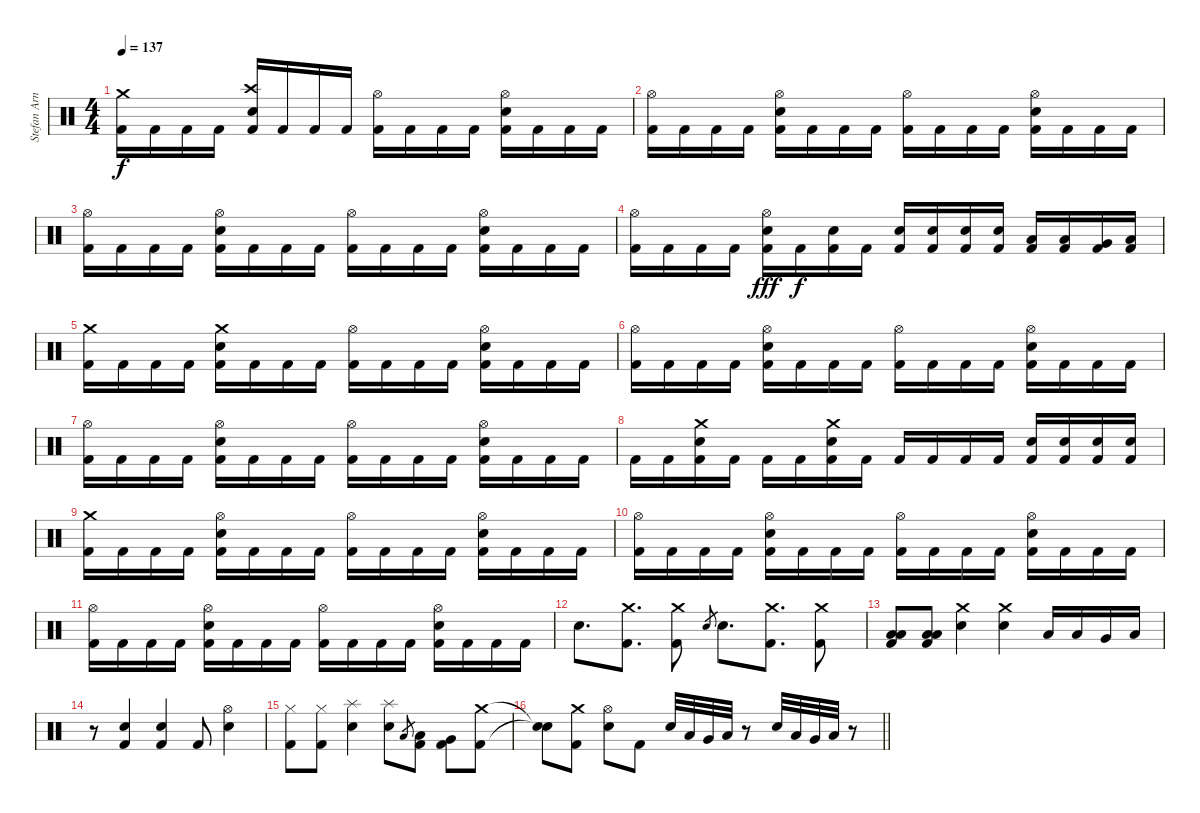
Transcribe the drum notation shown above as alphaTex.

\track ("Stefan Arnold" "Stefan Arn") {instrument percussion}
\staff {score}
\articulation defaults
\ts (4 4)
\tempo 137
\clef neutral
\ks c
("Crash medium (hit)" "Kick (hit) 2").16{dy f} "Kick (hit) 2".16 "Kick (hit) 2".16 "Kick (hit) 2".16 ("Crash high (hit)" "Electric Snare (hit)" "Kick (hit) 2").16 "Kick (hit) 2".16 "Kick (hit) 2".16 "Kick (hit) 2".16 ("Hi-Hat (open)" "Kick (hit) 2").16 "Kick (hit) 2".16 "Kick (hit) 2".16 "Kick (hit) 2".16 ("Hi-Hat (open)" "Electric Snare (hit)" "Kick (hit) 2").16 "Kick (hit) 2".16 "Kick (hit) 2".16 "Kick (hit) 2".16 |
("Hi-Hat (open)" "Kick (hit) 2").16 "Kick (hit) 2".16 "Kick (hit) 2".16 "Kick (hit) 2".16 ("Hi-Hat (open)" "Electric Snare (hit)" "Kick (hit) 2").16 "Kick (hit) 2".16 "Kick (hit) 2".16 "Kick (hit) 2".16 ("Hi-Hat (open)" "Kick (hit) 2").16 "Kick (hit) 2".16 "Kick (hit) 2".16 "Kick (hit) 2".16 ("Hi-Hat (open)" "Electric Snare (hit)" "Kick (hit) 2").16 "Kick (hit) 2".16 "Kick (hit) 2".16 "Kick (hit) 2".16 |
("Hi-Hat (open)" "Kick (hit) 2").16 "Kick (hit) 2".16 "Kick (hit) 2".16 "Kick (hit) 2".16 ("Hi-Hat (open)" "Electric Snare (hit)" "Kick (hit) 2").16 "Kick (hit) 2".16 "Kick (hit) 2".16 "Kick (hit) 2".16 ("Hi-Hat (open)" "Kick (hit) 2").16 "Kick (hit) 2".16 "Kick (hit) 2".16 "Kick (hit) 2".16 ("Hi-Hat (open)" "Electric Snare (hit)" "Kick (hit) 2").16 "Kick (hit) 2".16 "Kick (hit) 2".16 "Kick (hit) 2".16 |
("Hi-Hat (open)" "Kick (hit) 2").16 "Kick (hit) 2".16 "Kick (hit) 2".16 "Kick (hit) 2".16 ("Hi-Hat (open)" "Electric Snare (hit)" "Kick (hit) 2").16{dy fff} "Kick (hit) 2".16{dy f} ("Electric Snare (hit)" "Kick (hit) 2").16 "Kick (hit) 2".16 ("Electric Snare (hit)" "Kick (hit) 2").16 ("Electric Snare (hit)" "Kick (hit) 2").16 ("Electric Snare (hit)" "Kick (hit) 2").16 ("Electric Snare (hit)" "Kick (hit) 2").16 ("Low Tom (hit)" "Kick (hit) 2").16 ("Low Tom (hit)" "Kick (hit) 2").16 ("Very Low Tom (hit)" "Kick (hit) 2").16 ("Low Floor Tom (hit)" "Kick (hit) 2").16 |
("Crash medium (hit)" "Kick (hit) 2").16 "Kick (hit) 2".16 "Kick (hit) 2".16 "Kick (hit) 2".16 ("Crash medium (hit)" "Electric Snare (hit)" "Kick (hit) 2").16 "Kick (hit) 2".16 "Kick (hit) 2".16 "Kick (hit) 2".16 ("Hi-Hat (open)" "Kick (hit) 2").16 "Kick (hit) 2".16 "Kick (hit) 2".16 "Kick (hit) 2".16 ("Hi-Hat (open)" "Electric Snare (hit)" "Kick (hit) 2").16 "Kick (hit) 2".16 "Kick (hit) 2".16 "Kick (hit) 2".16 |
("Hi-Hat (open)" "Kick (hit) 2").16 "Kick (hit) 2".16 "Kick (hit) 2".16 "Kick (hit) 2".16 ("Hi-Hat (open)" "Electric Snare (hit)" "Kick (hit) 2").16 "Kick (hit) 2".16 "Kick (hit) 2".16 "Kick (hit) 2".16 ("Hi-Hat (open)" "Kick (hit) 2").16 "Kick (hit) 2".16 "Kick (hit) 2".16 "Kick (hit) 2".16 ("Hi-Hat (open)" "Electric Snare (hit)" "Kick (hit) 2").16 "Kick (hit) 2".16 "Kick (hit) 2".16 "Kick (hit) 2".16 |
("Hi-Hat (open)" "Kick (hit) 2").16 "Kick (hit) 2".16 "Kick (hit) 2".16 "Kick (hit) 2".16 ("Hi-Hat (open)" "Electric Snare (hit)" "Kick (hit) 2").16 "Kick (hit) 2".16 "Kick (hit) 2".16 "Kick (hit) 2".16 ("Hi-Hat (open)" "Kick (hit) 2").16 "Kick (hit) 2".16 "Kick (hit) 2".16 "Kick (hit) 2".16 ("Hi-Hat (open)" "Electric Snare (hit)" "Kick (hit) 2").16 "Kick (hit) 2".16 "Kick (hit) 2".16 "Kick (hit) 2".16 |
"Kick (hit) 2".16 "Kick (hit) 2".16 ("Crash medium (hit)" "Electric Snare (hit)" "Kick (hit) 2").16 "Kick (hit) 2".16 "Kick (hit) 2".16 "Kick (hit) 2".16 ("Crash medium (hit)" "Electric Snare (hit)" "Kick (hit) 2").16 "Kick (hit) 2".16 "Kick (hit) 2".16 "Kick (hit) 2".16 "Kick (hit) 2".16 "Kick (hit) 2".16 ("Electric Snare (hit)" "Kick (hit) 2").16 ("Electric Snare (hit)" "Kick (hit) 2").16 ("Electric Snare (hit)" "Kick (hit) 2").16 ("Electric Snare (hit)" "Kick (hit) 2").16 |
("Crash medium (hit)" "Kick (hit) 2").16 "Kick (hit) 2".16 "Kick (hit) 2".16 "Kick (hit) 2".16 ("Hi-Hat (open)" "Electric Snare (hit)" "Kick (hit) 2").16 "Kick (hit) 2".16 "Kick (hit) 2".16 "Kick (hit) 2".16 ("Hi-Hat (open)" "Kick (hit) 2").16 "Kick (hit) 2".16 "Kick (hit) 2".16 "Kick (hit) 2".16 ("Hi-Hat (open)" "Electric Snare (hit)" "Kick (hit) 2").16 "Kick (hit) 2".16 "Kick (hit) 2".16 "Kick (hit) 2".16 |
("Hi-Hat (open)" "Kick (hit) 2").16 "Kick (hit) 2".16 "Kick (hit) 2".16 "Kick (hit) 2".16 ("Hi-Hat (open)" "Electric Snare (hit)" "Kick (hit) 2").16 "Kick (hit) 2".16 "Kick (hit) 2".16 "Kick (hit) 2".16 ("Hi-Hat (open)" "Kick (hit) 2").16 "Kick (hit) 2".16 "Kick (hit) 2".16 "Kick (hit) 2".16 ("Hi-Hat (open)" "Electric Snare (hit)" "Kick (hit) 2").16 "Kick (hit) 2".16 "Kick (hit) 2".16 "Kick (hit) 2".16 |
("Hi-Hat (open)" "Kick (hit) 2").16 "Kick (hit) 2".16 "Kick (hit) 2".16 "Kick (hit) 2".16 ("Hi-Hat (open)" "Electric Snare (hit)" "Kick (hit) 2").16 "Kick (hit) 2".16 "Kick (hit) 2".16 "Kick (hit) 2".16 ("Hi-Hat (open)" "Kick (hit) 2").16 "Kick (hit) 2".16 "Kick (hit) 2".16 "Kick (hit) 2".16 ("Hi-Hat (open)" "Electric Snare (hit)" "Kick (hit) 2").16 "Kick (hit) 2".16 "Kick (hit) 2".16 "Kick (hit) 2".16 |
"Electric Snare (hit)".8{d} ("Crash medium (hit)" "Kick (hit) 2").8{d} ("Crash medium (hit)" "Kick (hit) 2").8 "Electric Snare (hit)".8{gr} "Electric Snare (hit)".8{d} ("Crash medium (hit)" "Kick (hit) 2").8{d} ("Crash medium (hit)" "Kick (hit) 2").8 |
("Low Floor Tom (hit)" "Low Floor Tom (hit)" "Kick (hit) 2").8 ("Low Floor Tom (hit)" "Low Floor Tom (hit)" "Kick (hit) 2").8 ("Crash medium (hit)" "Electric Snare (hit)").4 ("Crash medium (hit)" "Electric Snare (hit)").4 "Low Tom (hit)".16 "Low Tom (hit)".16 "Very Low Tom (hit)".16 "Low Floor Tom (hit)".16 |
r.8 ("Electric Snare (hit)" "Kick (hit) 2").4 ("Electric Snare (hit)" "Kick (hit) 2").4 "Kick (hit) 2".8 ("Hi-Hat (open)" "Electric Snare (hit)").4 |
("Hi-Hat (closed)" "Kick (hit) 2").8 ("Hi-Hat (closed)" "Kick (hit) 2").8 ("Splash (hit)" "Electric Snare (hit)").4 ("Splash (hit)" "Electric Snare (hit)").8 "Low Tom (hit)".8{gr} ("Low Tom (hit)" "Kick (hit) 2").8 ("Very Low Tom (hit)" "Kick (hit) 2").8 ("Crash medium (hit)" "Kick (hit) 2").8 |
\barLineRight lightlight
("Snare (hit)"{t} "Snare (hit)"{t}).8 ("Crash medium (hit)" "Kick (hit) 2").8 ("Hi-Hat (open)" "Electric Snare (hit)").8 "Kick (hit) 2".8 "Electric Snare (hit)".32 "Low Tom (hit)".32 "Very Low Tom (hit)".32 "Low Floor Tom (hit)".32 r.8 "Electric Snare (hit)".32 "Low Tom (hit)".32 "Very Low Tom (hit)".32 "Low Floor Tom (hit)".32 r.8
